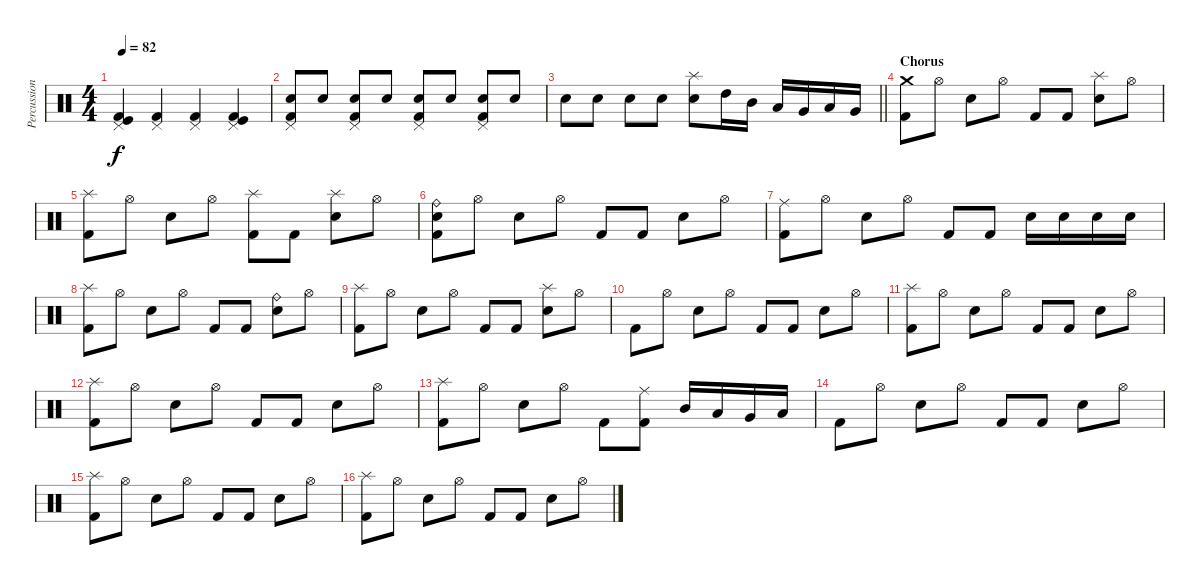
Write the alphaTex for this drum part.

\track ("Percussion" "Percussion") {instrument percussion}
\staff {score}
\articulation defaults
\ts (4 4)
\tempo 82
\clef neutral
\ks c
("Kick (hit)" "Kick (hit) 2" "Pedal Hi-Hat (hit)").4{dy f} ("Kick (hit) 2" "Pedal Hi-Hat (hit)").4 ("Pedal Hi-Hat (hit)" "Kick (hit) 2").4 ("Pedal Hi-Hat (hit)" "Kick (hit)" "Kick (hit) 2").4 |
("Kick (hit) 2" "Pedal Hi-Hat (hit)" "Snare (hit) 2").8 "Snare (hit) 2".8 ("Kick (hit) 2" "Pedal Hi-Hat (hit)" "Snare (hit) 2").8 "Snare (hit) 2".8 ("Kick (hit) 2" "Pedal Hi-Hat (hit)" "Snare (hit) 2").8 "Snare (hit) 2".8 ("Kick (hit) 2" "Pedal Hi-Hat (hit)" "Snare (hit) 2").8 "Snare (hit) 2".8 |
\barLineRight lightlight "Snare (hit) 2".8 "Snare (hit) 2".8 "Snare (hit) 2".8 "Snare (hit) 2".8
("Snare (hit) 2" "Splash (hit)").8 "High Tom (hit)".16 "Mid Tom (hit)".16 "Low Tom (hit)".16 "Very Low Tom (hit)".16 "Low Floor Tom (hit)".16 "Very Low Tom (hit)".16 |
\section ("" "Chorus")
("Kick (hit) 2" "Crash medium (hit)").8 "Hi-Hat (open)".8 "Snare (hit) 2".8 "Hi-Hat (open)".8 "Kick (hit) 2".8 "Kick (hit) 2".8 ("Snare (hit) 2" "Splash (hit)").8 "Hi-Hat (open)".8 |
("Kick (hit) 2" "Splash (hit)").8 "Hi-Hat (open)".8 "Snare (hit) 2".8 "Hi-Hat (open)".8 ("Splash (hit)" "Kick (hit) 2").8 "Kick (hit) 2".8 ("Splash (hit)" "Snare (hit) 2").8 "Hi-Hat (open)".8 |
("Snare (hit)" "Kick (hit) 2" "Ride (bell)").8 "Hi-Hat (open)".8 "Snare (hit) 2".8 "Hi-Hat (open)".8 "Kick (hit) 2".8 "Kick (hit) 2".8 "Snare (hit) 2".8 "Hi-Hat (open)".8 |
("Kick (hit) 2" "Ride (middle)").8 "Hi-Hat (open)".8 "Snare (hit) 2".8 "Hi-Hat (open)".8 "Kick (hit) 2".8 "Kick (hit) 2".8 "Snare (hit) 2".16 "Snare (hit) 2".16 "Snare (hit) 2".16 "Snare (hit) 2".16 |
("Kick (hit) 2" "Splash (hit)").8 "Hi-Hat (open)".8 "Snare (hit) 2".8 "Hi-Hat (open)".8 "Kick (hit) 2".8 "Kick (hit) 2".8 ("Ride (bell)" "Snare (hit) 2").8 "Hi-Hat (open)".8 |
("Kick (hit) 2" "Splash (hit)").8 "Hi-Hat (open)".8 "Snare (hit) 2".8 "Hi-Hat (open)".8 "Kick (hit) 2".8 "Kick (hit) 2".8 ("Splash (hit)" "Snare (hit) 2").8 "Hi-Hat (open)".8 |
"Kick (hit) 2".8 "Hi-Hat (open)".8 "Snare (hit) 2".8 "Hi-Hat (open)".8 "Kick (hit) 2".8 "Kick (hit) 2".8 "Snare (hit) 2".8 "Hi-Hat (open)".8 |
("Splash (hit)" "Kick (hit) 2").8 "Hi-Hat (open)".8 "Snare (hit) 2".8 "Hi-Hat (open)".8 "Kick (hit) 2".8 "Kick (hit) 2".8 "Snare (hit) 2".8 "Hi-Hat (open)".8 |
("Splash (hit)" "Kick (hit) 2").8 "Hi-Hat (open)".8 "Snare (hit) 2".8 "Hi-Hat (open)".8 "Kick (hit) 2".8 "Kick (hit) 2".8 "Snare (hit) 2".8 "Hi-Hat (open)".8 |
("Splash (hit)" "Kick (hit) 2").8 "Hi-Hat (open)".8 "Snare (hit) 2".8 "Hi-Hat (open)".8 "Kick (hit) 2".8 ("Ride (middle)" "Kick (hit) 2").8 "Mid Tom (hit)".16 "Low Tom (hit)".16 "Very Low Tom (hit)".16 "Low Floor Tom (hit)".16 |
"Kick (hit) 2".8 "Hi-Hat (open)".8 "Snare (hit) 2".8 "Hi-Hat (open)".8 "Kick (hit) 2".8 "Kick (hit) 2".8 "Snare (hit) 2".8 "Hi-Hat (open)".8 |
("Splash (hit)" "Kick (hit) 2").8 "Hi-Hat (open)".8 "Snare (hit) 2".8 "Hi-Hat (open)".8 "Kick (hit) 2".8 "Kick (hit) 2".8 "Snare (hit) 2".8 "Hi-Hat (open)".8 |
("Splash (hit)" "Kick (hit) 2").8 "Hi-Hat (open)".8 "Snare (hit) 2".8 "Hi-Hat (open)".8 "Kick (hit) 2".8 "Kick (hit) 2".8 "Snare (hit) 2".8 "Hi-Hat (open)".8
